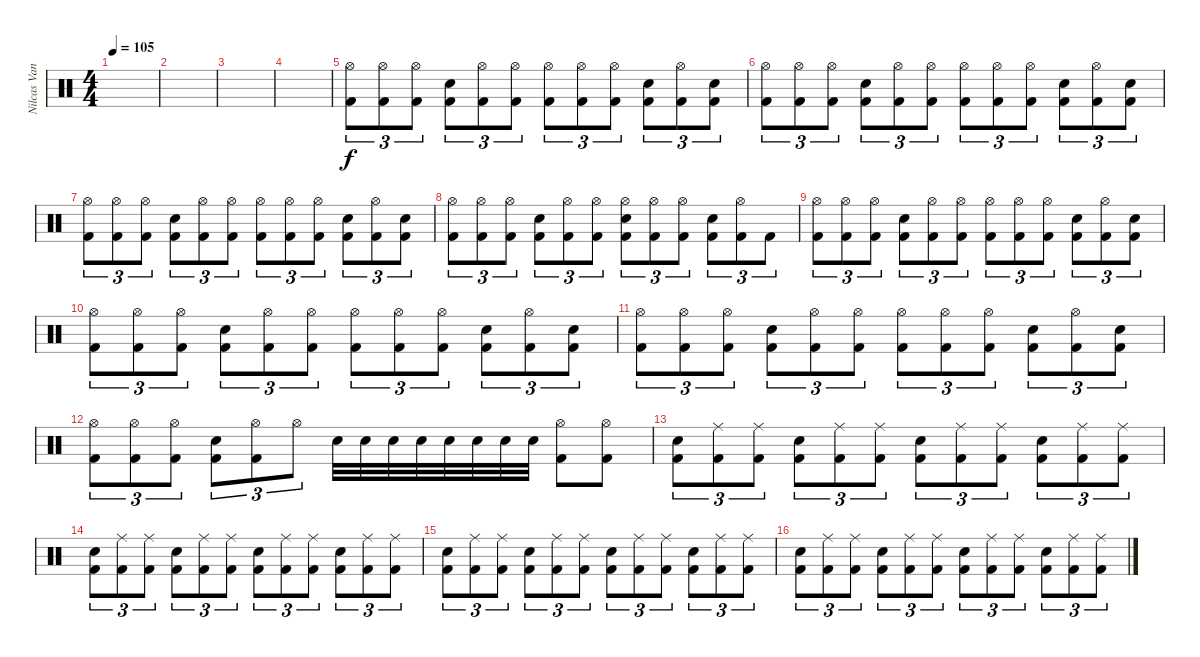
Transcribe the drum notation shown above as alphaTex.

\track ("Nilcas Vant" "Nilcas Van") {instrument percussion}
\staff {score}
\articulation defaults
\ts (4 4)
\tempo 105
\clef neutral
\ks c
|
|
|
|
("Hi-Hat (open)" "Kick (hit) 2").8{tu (3 2)} ("Hi-Hat (open)" "Kick (hit) 2").8{tu (3 2)} ("Hi-Hat (open)" "Kick (hit) 2").8{tu (3 2)} ("Electric Snare (hit)" "Kick (hit) 2").8{tu (3 2)} ("Hi-Hat (open)" "Kick (hit) 2").8{tu (3 2)} ("Hi-Hat (open)" "Kick (hit) 2").8{tu (3 2)} ("Hi-Hat (open)" "Kick (hit) 2").8{tu (3 2)} ("Hi-Hat (open)" "Kick (hit) 2").8{tu (3 2)} ("Hi-Hat (open)" "Kick (hit) 2").8{tu (3 2)} ("Electric Snare (hit)" "Kick (hit) 2").8{tu (3 2)} ("Hi-Hat (open)" "Kick (hit) 2").8{tu (3 2)} ("Electric Snare (hit)" "Kick (hit) 2").8{tu (3 2)} |
("Hi-Hat (open)" "Kick (hit) 2").8{tu (3 2)} ("Hi-Hat (open)" "Kick (hit) 2").8{tu (3 2)} ("Hi-Hat (open)" "Kick (hit) 2").8{tu (3 2)} ("Electric Snare (hit)" "Kick (hit) 2").8{tu (3 2)} ("Hi-Hat (open)" "Kick (hit) 2").8{tu (3 2)} ("Hi-Hat (open)" "Kick (hit) 2").8{tu (3 2)} ("Hi-Hat (open)" "Kick (hit) 2").8{tu (3 2)} ("Hi-Hat (open)" "Kick (hit) 2").8{tu (3 2)} ("Hi-Hat (open)" "Kick (hit) 2").8{tu (3 2)} ("Electric Snare (hit)" "Kick (hit) 2").8{tu (3 2)} ("Hi-Hat (open)" "Kick (hit) 2").8{tu (3 2)} ("Electric Snare (hit)" "Kick (hit) 2").8{tu (3 2)} |
("Hi-Hat (open)" "Kick (hit) 2").8{tu (3 2)} ("Hi-Hat (open)" "Kick (hit) 2").8{tu (3 2)} ("Hi-Hat (open)" "Kick (hit) 2").8{tu (3 2)} ("Electric Snare (hit)" "Kick (hit) 2").8{tu (3 2)} ("Hi-Hat (open)" "Kick (hit) 2").8{tu (3 2)} ("Hi-Hat (open)" "Kick (hit) 2").8{tu (3 2)} ("Hi-Hat (open)" "Kick (hit) 2").8{tu (3 2)} ("Hi-Hat (open)" "Kick (hit) 2").8{tu (3 2)} ("Hi-Hat (open)" "Kick (hit) 2").8{tu (3 2)} ("Electric Snare (hit)" "Kick (hit) 2").8{tu (3 2)} ("Hi-Hat (open)" "Kick (hit) 2").8{tu (3 2)} ("Electric Snare (hit)" "Kick (hit) 2").8{tu (3 2)} |
("Hi-Hat (open)" "Kick (hit) 2").8{tu (3 2)} ("Hi-Hat (open)" "Kick (hit) 2").8{tu (3 2)} ("Hi-Hat (open)" "Kick (hit) 2").8{tu (3 2)} ("Electric Snare (hit)" "Kick (hit) 2").8{tu (3 2)} ("Hi-Hat (open)" "Kick (hit) 2").8{tu (3 2)} ("Hi-Hat (open)" "Kick (hit) 2").8{tu (3 2)} ("Hi-Hat (open)" "Electric Snare (hit)" "Kick (hit) 2").8{tu (3 2)} ("Hi-Hat (open)" "Kick (hit) 2").8{tu (3 2)} ("Hi-Hat (open)" "Kick (hit) 2").8{tu (3 2)} ("Electric Snare (hit)" "Kick (hit) 2").8{tu (3 2)} ("Hi-Hat (open)" "Kick (hit) 2").8{tu (3 2)} "Kick (hit) 2".8{tu (3 2)} |
("Hi-Hat (open)" "Kick (hit) 2").8{tu (3 2)} ("Hi-Hat (open)" "Kick (hit) 2").8{tu (3 2)} ("Hi-Hat (open)" "Kick (hit) 2").8{tu (3 2)} ("Electric Snare (hit)" "Kick (hit) 2").8{tu (3 2)} ("Hi-Hat (open)" "Kick (hit) 2").8{tu (3 2)} ("Hi-Hat (open)" "Kick (hit) 2").8{tu (3 2)} ("Hi-Hat (open)" "Kick (hit) 2").8{tu (3 2)} ("Hi-Hat (open)" "Kick (hit) 2").8{tu (3 2)} ("Hi-Hat (open)" "Kick (hit) 2").8{tu (3 2)} ("Electric Snare (hit)" "Kick (hit) 2").8{tu (3 2)} ("Hi-Hat (open)" "Kick (hit) 2").8{tu (3 2)} ("Electric Snare (hit)" "Kick (hit) 2").8{tu (3 2)} |
("Hi-Hat (open)" "Kick (hit) 2").8{tu (3 2)} ("Hi-Hat (open)" "Kick (hit) 2").8{tu (3 2)} ("Hi-Hat (open)" "Kick (hit) 2").8{tu (3 2)} ("Electric Snare (hit)" "Kick (hit) 2").8{tu (3 2)} ("Hi-Hat (open)" "Kick (hit) 2").8{tu (3 2)} ("Hi-Hat (open)" "Kick (hit) 2").8{tu (3 2)} ("Hi-Hat (open)" "Kick (hit) 2").8{tu (3 2)} ("Hi-Hat (open)" "Kick (hit) 2").8{tu (3 2)} ("Hi-Hat (open)" "Kick (hit) 2").8{tu (3 2)} ("Electric Snare (hit)" "Kick (hit) 2").8{tu (3 2)} ("Hi-Hat (open)" "Kick (hit) 2").8{tu (3 2)} ("Electric Snare (hit)" "Kick (hit) 2").8{tu (3 2)} |
("Hi-Hat (open)" "Kick (hit) 2").8{tu (3 2)} ("Hi-Hat (open)" "Kick (hit) 2").8{tu (3 2)} ("Hi-Hat (open)" "Kick (hit) 2").8{tu (3 2)} ("Electric Snare (hit)" "Kick (hit) 2").8{tu (3 2)} ("Hi-Hat (open)" "Kick (hit) 2").8{tu (3 2)} ("Hi-Hat (open)" "Kick (hit) 2").8{tu (3 2)} ("Hi-Hat (open)" "Kick (hit) 2").8{tu (3 2)} ("Hi-Hat (open)" "Kick (hit) 2").8{tu (3 2)} ("Hi-Hat (open)" "Kick (hit) 2").8{tu (3 2)} ("Electric Snare (hit)" "Kick (hit) 2").8{tu (3 2)} ("Hi-Hat (open)" "Kick (hit) 2").8{tu (3 2)} ("Electric Snare (hit)" "Kick (hit) 2").8{tu (3 2)} |
("Hi-Hat (open)" "Kick (hit) 2").8{tu (3 2)} ("Hi-Hat (open)" "Kick (hit) 2").8{tu (3 2)} ("Hi-Hat (open)" "Kick (hit) 2").8{tu (3 2)} ("Electric Snare (hit)" "Kick (hit) 2").8{tu (3 2)} ("Hi-Hat (open)" "Kick (hit) 2").8{tu (3 2)} "Hi-Hat (open)".8{tu (3 2)} "Electric Snare (hit)".32 "Electric Snare (hit)".32 "Electric Snare (hit)".32 "Electric Snare (hit)".32 "Electric Snare (hit)".32 "Electric Snare (hit)".32 "Electric Snare (hit)".32 "Electric Snare (hit)".32 ("Hi-Hat (open)" "Kick (hit) 2").8 ("Hi-Hat (open)" "Kick (hit) 2").8 |
("Electric Snare (hit)" "Kick (hit) 2").8{tu (3 2)} ("Ride (middle)" "Kick (hit) 2").8{tu (3 2)} ("Ride (middle)" "Kick (hit) 2").8{tu (3 2)} ("Electric Snare (hit)" "Kick (hit) 2").8{tu (3 2)} ("Ride (middle)" "Kick (hit) 2").8{tu (3 2)} ("Ride (middle)" "Kick (hit) 2").8{tu (3 2)} ("Electric Snare (hit)" "Kick (hit) 2").8{tu (3 2)} ("Ride (middle)" "Kick (hit) 2").8{tu (3 2)} ("Ride (middle)" "Kick (hit) 2").8{tu (3 2)} ("Electric Snare (hit)" "Kick (hit) 2").8{tu (3 2)} ("Ride (middle)" "Kick (hit) 2").8{tu (3 2)} ("Ride (middle)" "Kick (hit) 2").8{tu (3 2)} |
("Electric Snare (hit)" "Kick (hit) 2").8{tu (3 2)} ("Ride (middle)" "Kick (hit) 2").8{tu (3 2)} ("Ride (middle)" "Kick (hit) 2").8{tu (3 2)} ("Electric Snare (hit)" "Kick (hit) 2").8{tu (3 2)} ("Ride (middle)" "Kick (hit) 2").8{tu (3 2)} ("Ride (middle)" "Kick (hit) 2").8{tu (3 2)} ("Electric Snare (hit)" "Kick (hit) 2").8{tu (3 2)} ("Ride (middle)" "Kick (hit) 2").8{tu (3 2)} ("Ride (middle)" "Kick (hit) 2").8{tu (3 2)} ("Electric Snare (hit)" "Kick (hit) 2").8{tu (3 2)} ("Ride (middle)" "Kick (hit) 2").8{tu (3 2)} ("Ride (middle)" "Kick (hit) 2").8{tu (3 2)} |
("Electric Snare (hit)" "Kick (hit) 2").8{tu (3 2)} ("Ride (middle)" "Kick (hit) 2").8{tu (3 2)} ("Ride (middle)" "Kick (hit) 2").8{tu (3 2)} ("Electric Snare (hit)" "Kick (hit) 2").8{tu (3 2)} ("Ride (middle)" "Kick (hit) 2").8{tu (3 2)} ("Ride (middle)" "Kick (hit) 2").8{tu (3 2)} ("Electric Snare (hit)" "Kick (hit) 2").8{tu (3 2)} ("Ride (middle)" "Kick (hit) 2").8{tu (3 2)} ("Ride (middle)" "Kick (hit) 2").8{tu (3 2)} ("Electric Snare (hit)" "Kick (hit) 2").8{tu (3 2)} ("Ride (middle)" "Kick (hit) 2").8{tu (3 2)} ("Ride (middle)" "Kick (hit) 2").8{tu (3 2)} |
("Electric Snare (hit)" "Kick (hit) 2").8{tu (3 2)} ("Ride (middle)" "Kick (hit) 2").8{tu (3 2)} ("Ride (middle)" "Kick (hit) 2").8{tu (3 2)} ("Electric Snare (hit)" "Kick (hit) 2").8{tu (3 2)} ("Ride (middle)" "Kick (hit) 2").8{tu (3 2)} ("Ride (middle)" "Kick (hit) 2").8{tu (3 2)} ("Electric Snare (hit)" "Kick (hit) 2").8{tu (3 2)} ("Ride (middle)" "Kick (hit) 2").8{tu (3 2)} ("Ride (middle)" "Kick (hit) 2").8{tu (3 2)} ("Electric Snare (hit)" "Kick (hit) 2").8{tu (3 2)} ("Ride (middle)" "Kick (hit) 2").8{tu (3 2)} ("Ride (middle)" "Kick (hit) 2").8{tu (3 2)}
